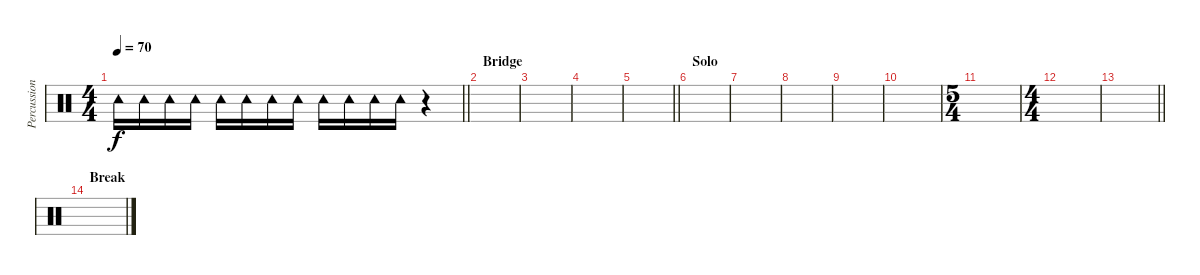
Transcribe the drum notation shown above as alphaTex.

\track ("Percussion" "Percussion") {instrument percussion}
\staff {score}
\articulation defaults
\ts (4 4)
\tempo 70
\clef neutral
\barLineRight lightlight
\ks c "Tambourine (hit)".16{dy f} "Tambourine (hit)".16 "Tambourine (hit)".16 "Tambourine (hit)".16 "Tambourine (hit)".16 "Tambourine (hit)".16 "Tambourine (hit)".16 "Tambourine (hit)".16 "Tambourine (hit)".16 "Tambourine (hit)".16 "Tambourine (hit)".16 "Tambourine (hit)".16
r.4 |
\section ("" "Bridge")
|
|
|
\barLineRight lightlight
|
\section ("" "Solo")
|
|
|
|
|
\ts (5 4)
|
\ts (4 4)
|
\barLineRight lightlight
|
\section ("" "Break")
